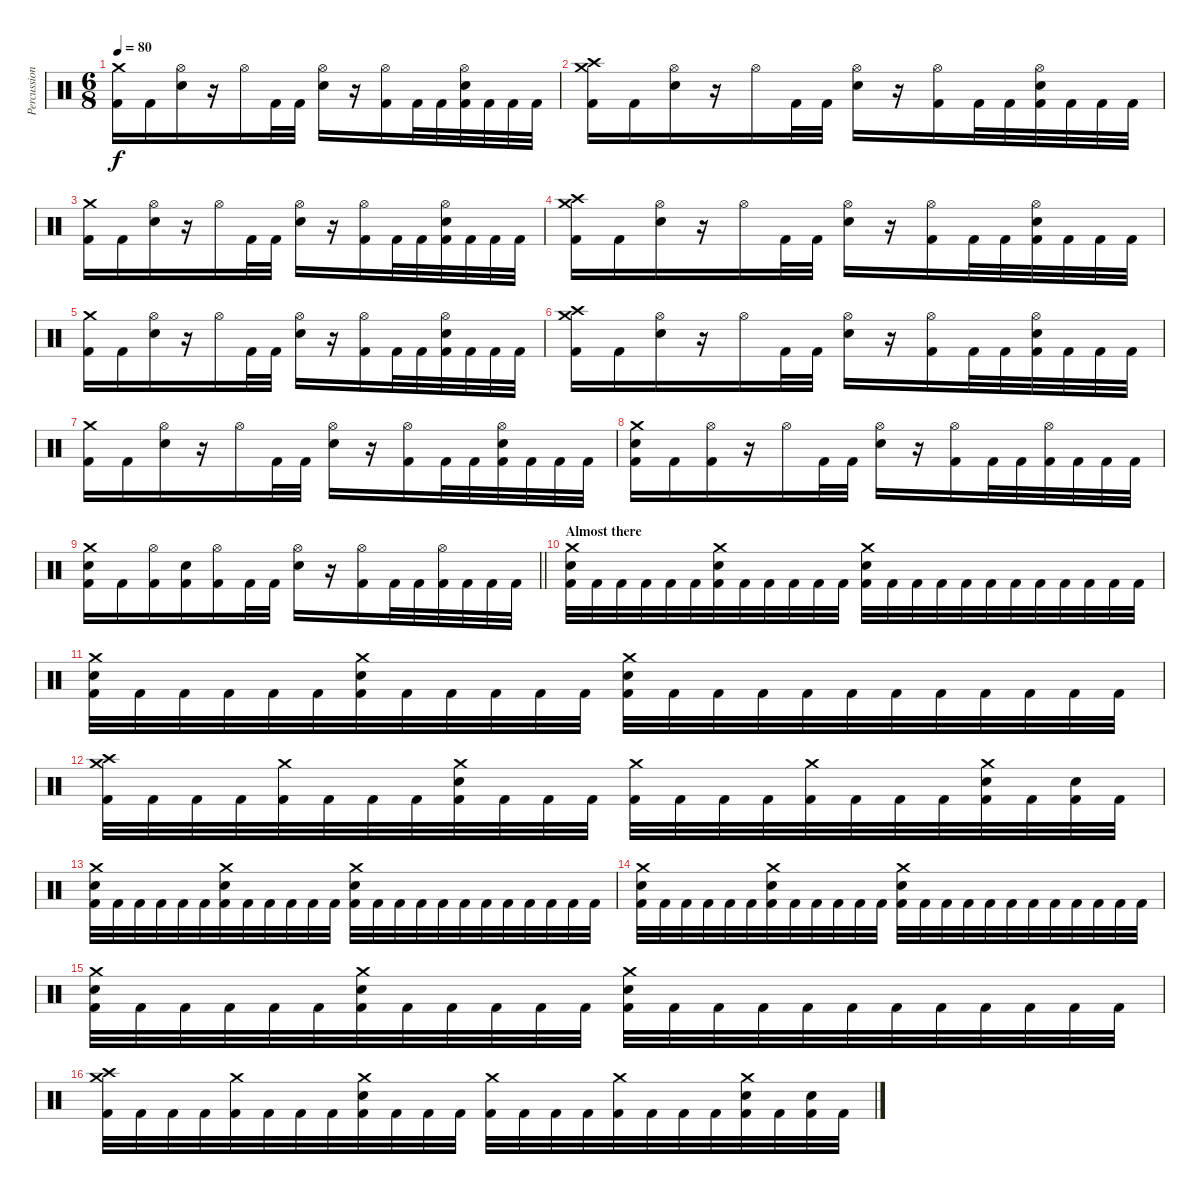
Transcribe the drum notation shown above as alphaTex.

\track ("Percussion" "Percussion") {instrument percussion}
\staff {score}
\articulation defaults
\ts (6 8)
\tempo 80
\clef neutral
\ks c
("Crash medium (hit)" "Kick (hit) 2").16{dy f} "Kick (hit) 2".16 ("Hi-Hat (open)" "Snare (hit) 2").16 r.16 "Hi-Hat (open)".16 "Kick (hit) 2".32 "Kick (hit) 2".32 ("Hi-Hat (open)" "Snare (hit) 2").16 r.16 ("Hi-Hat (open)" "Kick (hit) 2").16 "Kick (hit) 2".32 "Kick (hit) 2".32 ("Hi-Hat (open)" "Snare (hit) 2" "Kick (hit) 2").32 "Kick (hit) 2".32 "Kick (hit) 2".32 "Kick (hit) 2".32 |
("Crash high (hit)" "Crash medium (hit)" "Kick (hit) 2").16 "Kick (hit) 2".16 ("Hi-Hat (open)" "Snare (hit) 2").16 r.16 "Hi-Hat (open)".16 "Kick (hit) 2".32 "Kick (hit) 2".32 ("Hi-Hat (open)" "Snare (hit) 2").16 r.16 ("Hi-Hat (open)" "Kick (hit) 2").16 "Kick (hit) 2".32 "Kick (hit) 2".32 ("Hi-Hat (open)" "Snare (hit) 2" "Kick (hit) 2").32 "Kick (hit) 2".32 "Kick (hit) 2".32 "Kick (hit) 2".32 |
("Crash medium (hit)" "Kick (hit) 2").16 "Kick (hit) 2".16 ("Hi-Hat (open)" "Snare (hit) 2").16 r.16 "Hi-Hat (open)".16 "Kick (hit) 2".32 "Kick (hit) 2".32 ("Hi-Hat (open)" "Snare (hit) 2").16 r.16 ("Hi-Hat (open)" "Kick (hit) 2").16 "Kick (hit) 2".32 "Kick (hit) 2".32 ("Hi-Hat (open)" "Snare (hit) 2" "Kick (hit) 2").32 "Kick (hit) 2".32 "Kick (hit) 2".32 "Kick (hit) 2".32 |
("Crash high (hit)" "Crash medium (hit)" "Kick (hit) 2").16 "Kick (hit) 2".16 ("Hi-Hat (open)" "Snare (hit) 2").16 r.16 "Hi-Hat (open)".16 "Kick (hit) 2".32 "Kick (hit) 2".32 ("Hi-Hat (open)" "Snare (hit) 2").16 r.16 ("Hi-Hat (open)" "Kick (hit) 2").16 "Kick (hit) 2".32 "Kick (hit) 2".32 ("Hi-Hat (open)" "Snare (hit) 2" "Kick (hit) 2").32 "Kick (hit) 2".32 "Kick (hit) 2".32 "Kick (hit) 2".32 |
("Crash medium (hit)" "Kick (hit) 2").16 "Kick (hit) 2".16 ("Hi-Hat (open)" "Snare (hit) 2").16 r.16 "Hi-Hat (open)".16 "Kick (hit) 2".32 "Kick (hit) 2".32 ("Hi-Hat (open)" "Snare (hit) 2").16 r.16 ("Hi-Hat (open)" "Kick (hit) 2").16 "Kick (hit) 2".32 "Kick (hit) 2".32 ("Hi-Hat (open)" "Snare (hit) 2" "Kick (hit) 2").32 "Kick (hit) 2".32 "Kick (hit) 2".32 "Kick (hit) 2".32 |
("Crash high (hit)" "Crash medium (hit)" "Kick (hit) 2").16 "Kick (hit) 2".16 ("Hi-Hat (open)" "Snare (hit) 2").16 r.16 "Hi-Hat (open)".16 "Kick (hit) 2".32 "Kick (hit) 2".32 ("Hi-Hat (open)" "Snare (hit) 2").16 r.16 ("Hi-Hat (open)" "Kick (hit) 2").16 "Kick (hit) 2".32 "Kick (hit) 2".32 ("Hi-Hat (open)" "Snare (hit) 2" "Kick (hit) 2").32 "Kick (hit) 2".32 "Kick (hit) 2".32 "Kick (hit) 2".32 |
("Crash medium (hit)" "Kick (hit) 2").16 "Kick (hit) 2".16 ("Hi-Hat (open)" "Snare (hit) 2").16 r.16 "Hi-Hat (open)".16 "Kick (hit) 2".32 "Kick (hit) 2".32 ("Hi-Hat (open)" "Snare (hit) 2").16 r.16 ("Hi-Hat (open)" "Kick (hit) 2").16 "Kick (hit) 2".32 "Kick (hit) 2".32 ("Hi-Hat (open)" "Snare (hit) 2" "Kick (hit) 2").32 "Kick (hit) 2".32 "Kick (hit) 2".32 "Kick (hit) 2".32 |
("Crash medium (hit)" "Snare (hit) 2" "Kick (hit) 2").16 "Kick (hit) 2".16 ("Hi-Hat (open)" "Kick (hit) 2").16 r.16 "Hi-Hat (open)".16 "Kick (hit) 2".32 "Kick (hit) 2".32 ("Hi-Hat (open)" "Snare (hit) 2").16 r.16 ("Hi-Hat (open)" "Kick (hit) 2").16 "Kick (hit) 2".32 "Kick (hit) 2".32 ("Hi-Hat (open)" "Kick (hit) 2").32 "Kick (hit) 2".32 "Kick (hit) 2".32 "Kick (hit) 2".32 |
\barLineRight lightlight
("Crash medium (hit)" "Snare (hit) 2" "Kick (hit) 2").16 "Kick (hit) 2".16 ("Hi-Hat (open)" "Kick (hit) 2").16 ("Snare (hit) 2" "Kick (hit) 2").16 ("Hi-Hat (open)" "Kick (hit) 2").16 "Kick (hit) 2".32 "Kick (hit) 2".32 ("Hi-Hat (open)" "Snare (hit) 2").16 r.16 ("Hi-Hat (open)" "Kick (hit) 2").16 "Kick (hit) 2".32 "Kick (hit) 2".32 ("Hi-Hat (open)" "Kick (hit) 2").32 "Kick (hit) 2".32 "Kick (hit) 2".32 "Kick (hit) 2".32 |
\section ("" "Almost there")
("Crash medium (hit)" "Snare (hit) 2" "Kick (hit) 2").32 "Kick (hit) 2".32 "Kick (hit) 2".32 "Kick (hit) 2".32 "Kick (hit) 2".32 "Kick (hit) 2".32 ("Crash medium (hit)" "Snare (hit) 2" "Kick (hit) 2").32 "Kick (hit) 2".32 "Kick (hit) 2".32 "Kick (hit) 2".32 "Kick (hit) 2".32 "Kick (hit) 2".32 ("Crash medium (hit)" "Snare (hit) 2" "Kick (hit) 2").32 "Kick (hit) 2".32 "Kick (hit) 2".32 "Kick (hit) 2".32 "Kick (hit) 2".32 "Kick (hit) 2".32 "Kick (hit) 2".32 "Kick (hit) 2".32 "Kick (hit) 2".32 "Kick (hit) 2".32 "Kick (hit) 2".32 "Kick (hit) 2".32 |
("Crash medium (hit)" "Snare (hit) 2" "Kick (hit) 2").32 "Kick (hit) 2".32 "Kick (hit) 2".32 "Kick (hit) 2".32 "Kick (hit) 2".32 "Kick (hit) 2".32 ("Crash medium (hit)" "Snare (hit) 2" "Kick (hit) 2").32 "Kick (hit) 2".32 "Kick (hit) 2".32 "Kick (hit) 2".32 "Kick (hit) 2".32 "Kick (hit) 2".32 ("Crash medium (hit)" "Snare (hit) 2" "Kick (hit) 2").32 "Kick (hit) 2".32 "Kick (hit) 2".32 "Kick (hit) 2".32 "Kick (hit) 2".32 "Kick (hit) 2".32 "Kick (hit) 2".32 "Kick (hit) 2".32 "Kick (hit) 2".32 "Kick (hit) 2".32 "Kick (hit) 2".32 "Kick (hit) 2".32 |
("Crash high (hit)" "Crash medium (hit)" "Kick (hit) 2").32 "Kick (hit) 2".32 "Kick (hit) 2".32 "Kick (hit) 2".32 ("Crash medium (hit)" "Kick (hit) 2").32 "Kick (hit) 2".32 "Kick (hit) 2".32 "Kick (hit) 2".32 ("Crash medium (hit)" "Snare (hit) 2" "Kick (hit) 2").32 "Kick (hit) 2".32 "Kick (hit) 2".32 "Kick (hit) 2".32 ("Crash medium (hit)" "Kick (hit) 2").32 "Kick (hit) 2".32 "Kick (hit) 2".32 "Kick (hit) 2".32 ("Crash medium (hit)" "Kick (hit) 2").32 "Kick (hit) 2".32 "Kick (hit) 2".32 "Kick (hit) 2".32 ("Crash medium (hit)" "Snare (hit) 2" "Kick (hit) 2").32 "Kick (hit) 2".32 ("Snare (hit) 2" "Kick (hit) 2").32 "Kick (hit) 2".32 |
("Crash medium (hit)" "Snare (hit) 2" "Kick (hit) 2").32 "Kick (hit) 2".32 "Kick (hit) 2".32 "Kick (hit) 2".32 "Kick (hit) 2".32 "Kick (hit) 2".32 ("Crash medium (hit)" "Snare (hit) 2" "Kick (hit) 2").32 "Kick (hit) 2".32 "Kick (hit) 2".32 "Kick (hit) 2".32 "Kick (hit) 2".32 "Kick (hit) 2".32 ("Crash medium (hit)" "Snare (hit) 2" "Kick (hit) 2").32 "Kick (hit) 2".32 "Kick (hit) 2".32 "Kick (hit) 2".32 "Kick (hit) 2".32 "Kick (hit) 2".32 "Kick (hit) 2".32 "Kick (hit) 2".32 "Kick (hit) 2".32 "Kick (hit) 2".32 "Kick (hit) 2".32 "Kick (hit) 2".32 |
("Crash medium (hit)" "Snare (hit) 2" "Kick (hit) 2").32 "Kick (hit) 2".32 "Kick (hit) 2".32 "Kick (hit) 2".32 "Kick (hit) 2".32 "Kick (hit) 2".32 ("Crash medium (hit)" "Snare (hit) 2" "Kick (hit) 2").32 "Kick (hit) 2".32 "Kick (hit) 2".32 "Kick (hit) 2".32 "Kick (hit) 2".32 "Kick (hit) 2".32 ("Crash medium (hit)" "Snare (hit) 2" "Kick (hit) 2").32 "Kick (hit) 2".32 "Kick (hit) 2".32 "Kick (hit) 2".32 "Kick (hit) 2".32 "Kick (hit) 2".32 "Kick (hit) 2".32 "Kick (hit) 2".32 "Kick (hit) 2".32 "Kick (hit) 2".32 "Kick (hit) 2".32 "Kick (hit) 2".32 |
("Crash medium (hit)" "Snare (hit) 2" "Kick (hit) 2").32 "Kick (hit) 2".32 "Kick (hit) 2".32 "Kick (hit) 2".32 "Kick (hit) 2".32 "Kick (hit) 2".32 ("Crash medium (hit)" "Snare (hit) 2" "Kick (hit) 2").32 "Kick (hit) 2".32 "Kick (hit) 2".32 "Kick (hit) 2".32 "Kick (hit) 2".32 "Kick (hit) 2".32 ("Crash medium (hit)" "Snare (hit) 2" "Kick (hit) 2").32 "Kick (hit) 2".32 "Kick (hit) 2".32 "Kick (hit) 2".32 "Kick (hit) 2".32 "Kick (hit) 2".32 "Kick (hit) 2".32 "Kick (hit) 2".32 "Kick (hit) 2".32 "Kick (hit) 2".32 "Kick (hit) 2".32 "Kick (hit) 2".32 |
("Crash high (hit)" "Crash medium (hit)" "Kick (hit) 2").32 "Kick (hit) 2".32 "Kick (hit) 2".32 "Kick (hit) 2".32 ("Crash medium (hit)" "Kick (hit) 2").32 "Kick (hit) 2".32 "Kick (hit) 2".32 "Kick (hit) 2".32 ("Crash medium (hit)" "Snare (hit) 2" "Kick (hit) 2").32 "Kick (hit) 2".32 "Kick (hit) 2".32 "Kick (hit) 2".32 ("Crash medium (hit)" "Kick (hit) 2").32 "Kick (hit) 2".32 "Kick (hit) 2".32 "Kick (hit) 2".32 ("Crash medium (hit)" "Kick (hit) 2").32 "Kick (hit) 2".32 "Kick (hit) 2".32 "Kick (hit) 2".32 ("Crash medium (hit)" "Snare (hit) 2" "Kick (hit) 2").32 "Kick (hit) 2".32 ("Snare (hit) 2" "Kick (hit) 2").32 "Kick (hit) 2".32
